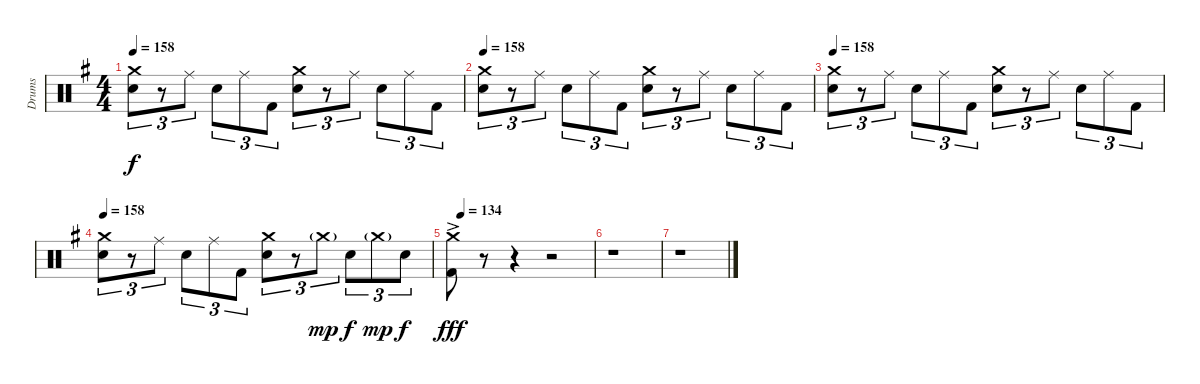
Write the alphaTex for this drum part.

\track ("Drums" "Drums") {instrument percussion}
\staff {score}
\articulation defaults
\ts (4 4)
\tempo 158
\clef neutral
\ks eminor
("Crash medium (hit)" "Snare (hit) 2").8{tu (3 2) dy f} r.8{tu (3 2)} "Ride (middle)".8{tu (3 2)} "Snare (hit) 2".8{tu (3 2)} "Ride (middle)".8{tu (3 2)} "Kick (hit) 2".8{tu (3 2)} ("Crash medium (hit)" "Snare (hit) 2").8{tu (3 2)} r.8{tu (3 2)} "Ride (middle)".8{tu (3 2)} "Snare (hit) 2".8{tu (3 2)} "Ride (middle)".8{tu (3 2)} "Kick (hit) 2".8{tu (3 2)} |
\tempo 158
("Crash medium (hit)" "Snare (hit) 2").8{tu (3 2)} r.8{tu (3 2)} "Ride (middle)".8{tu (3 2)} "Snare (hit) 2".8{tu (3 2)} "Ride (middle)".8{tu (3 2)} "Kick (hit) 2".8{tu (3 2)} ("Crash medium (hit)" "Snare (hit) 2").8{tu (3 2)} r.8{tu (3 2)} "Ride (middle)".8{tu (3 2)} "Snare (hit) 2".8{tu (3 2)} "Ride (middle)".8{tu (3 2)} "Kick (hit) 2".8{tu (3 2)} |
\tempo 158
("Crash medium (hit)" "Snare (hit) 2").8{tu (3 2)} r.8{tu (3 2)} "Ride (middle)".8{tu (3 2)} "Snare (hit) 2".8{tu (3 2)} "Ride (middle)".8{tu (3 2)} "Kick (hit) 2".8{tu (3 2)} ("Crash medium (hit)" "Snare (hit) 2").8{tu (3 2)} r.8{tu (3 2)} "Ride (middle)".8{tu (3 2)} "Snare (hit) 2".8{tu (3 2)} "Ride (middle)".8{tu (3 2)} "Kick (hit) 2".8{tu (3 2)} |
\tempo 158
("Crash medium (hit)" "Snare (hit) 2").8{tu (3 2)} r.8{tu (3 2)} "Ride (middle)".8{tu (3 2)} "Snare (hit) 2".8{tu (3 2)} "Ride (middle)".8{tu (3 2)} "Kick (hit) 2".8{tu (3 2)} ("Crash medium (hit)" "Snare (hit) 2").8{tu (3 2)} r.8{tu (3 2)} "Crash medium (hit)"{g}.8{tu (3 2) dy mp} "Snare (hit) 2".8{tu (3 2) dy f} "Crash medium (hit)"{g}.8{tu (3 2) dy mp} "Snare (hit) 2".8{tu (3 2) dy f} |
\tempo (134 0.0625)
("Crash medium (hit)"{ac} "Kick (hit) 2").8{dy fff} r.8{volume 0} r.4 r.2 |
r.1 |
r.1
